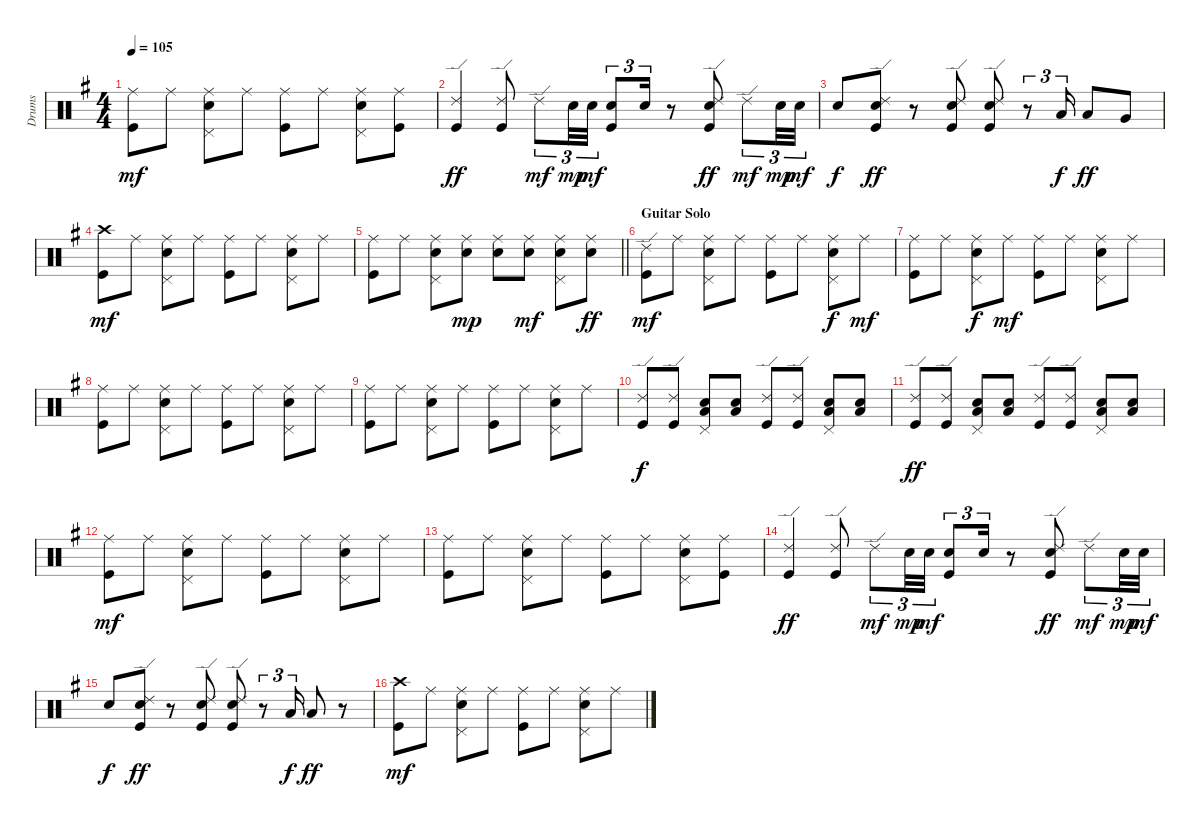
\track ("Drums" "Drums") {instrument percussion}
\staff {score}
\articulation defaults
\ts (4 4)
\tempo 105
\clef neutral
\ks eminor
("Ride (middle)" "Kick (hit)").8{dy mf} "Ride (middle)".8 ("Ride (middle)" "Pedal Hi-Hat (hit)" "Snare (hit) 2").8 "Ride (middle)".8 ("Ride (middle)" "Kick (hit)").8 "Ride (middle)".8 ("Ride (middle)" "Pedal Hi-Hat (hit)" "Snare (hit) 2").8 ("Ride (middle)" "Kick (hit)").8 |
("Ride (edge) 2" "Kick (hit)").4{dy ff} ("Ride (edge) 2" "Kick (hit)").8 "Ride (edge) 2".8{tu (3 2) dy mf} "Snare (hit) 2".32{tu (3 2) dy mp} "Snare (hit) 2".32{tu (3 2) dy mf} ("Snare (hit) 2" "Kick (hit)").8{tu (3 2)} "Snare (hit) 2".16{tu (3 2)} r.8 ("Ride (edge) 2" "Snare (hit) 2" "Kick (hit)").8{dy ff} "Ride (edge) 2".8{tu (3 2) dy mf} "Snare (hit) 2".32{tu (3 2) dy mp} "Snare (hit) 2".32{tu (3 2) dy mf} |
"Snare (hit) 2".8{dy f} ("Ride (edge) 2" "Snare (hit) 2" "Kick (hit)").8{dy ff} r.8 ("Ride (edge) 2" "Snare (hit) 2" "Kick (hit)").8 ("Ride (edge) 2" "Snare (hit) 2" "Kick (hit)").8 r.8{tu (3 2)} "Low Tom (hit)".16{tu (3 2) dy f} "Low Tom (hit)".8{dy ff} "Very Low Tom (hit)".8 |
("Crash high (hit)" "Kick (hit)").8{dy mf} "Ride (middle)".8 ("Ride (middle)" "Pedal Hi-Hat (hit)" "Snare (hit) 2").8 "Ride (middle)".8 ("Ride (middle)" "Kick (hit)").8 "Ride (middle)".8 ("Ride (middle)" "Pedal Hi-Hat (hit)" "Snare (hit) 2").8 "Ride (middle)".8 |
\barLineRight lightlight
("Ride (middle)" "Kick (hit)").8 "Ride (middle)".8 ("Ride (middle)" "Pedal Hi-Hat (hit)" "Snare (hit) 2").8 ("Ride (middle)" "Snare (hit) 2").8{dy mp} ("Ride (middle)" "Snare (hit) 2").8 ("Ride (middle)" "Snare (hit) 2").8{dy mf} ("Ride (middle)" "Pedal Hi-Hat (hit)" "Snare (hit) 2").8 ("Ride (middle)" "Snare (hit) 2").8{dy ff} |
\section ("" "Guitar Solo")
("Ride (edge) 2" "Kick (hit)").8{dy mf} "Ride (middle)".8 ("Ride (middle)" "Pedal Hi-Hat (hit)" "Snare (hit) 2").8 "Ride (middle)".8 ("Ride (middle)" "Kick (hit)").8 "Ride (middle)".8 ("Ride (middle)" "Pedal Hi-Hat (hit)" "Snare (hit) 2").8{dy f} "Ride (middle)".8{dy mf} |
("Ride (middle)" "Kick (hit)").8 "Ride (middle)".8 ("Ride (middle)" "Pedal Hi-Hat (hit)" "Snare (hit) 2").8{dy f} "Ride (middle)".8{dy mf} ("Ride (middle)" "Kick (hit)").8 "Ride (middle)".8 ("Ride (middle)" "Pedal Hi-Hat (hit)" "Snare (hit) 2").8 "Ride (middle)".8 |
("Ride (middle)" "Kick (hit)").8 "Ride (middle)".8 ("Ride (middle)" "Pedal Hi-Hat (hit)" "Snare (hit) 2").8 "Ride (middle)".8 ("Ride (middle)" "Kick (hit)").8 "Ride (middle)".8 ("Ride (middle)" "Pedal Hi-Hat (hit)" "Snare (hit) 2").8 "Ride (middle)".8 |
("Ride (middle)" "Kick (hit)").8 "Ride (middle)".8 ("Ride (middle)" "Pedal Hi-Hat (hit)" "Snare (hit) 2").8 "Ride (middle)".8 ("Ride (middle)" "Kick (hit)").8 "Ride (middle)".8 ("Ride (middle)" "Pedal Hi-Hat (hit)" "Snare (hit) 2").8 "Ride (middle)".8 |
("Ride (edge) 2" "Kick (hit)").8{dy f} ("Ride (edge) 2" "Kick (hit)").8 ("Pedal Hi-Hat (hit)" "Snare (hit) 2" "Low Tom (hit)").8 ("Snare (hit) 2" "Low Tom (hit)").8 ("Ride (edge) 2" "Kick (hit)").8 ("Ride (edge) 2" "Kick (hit)").8 ("Pedal Hi-Hat (hit)" "Snare (hit) 2" "Low Tom (hit)").8 ("Snare (hit) 2" "Low Tom (hit)").8 |
("Ride (edge) 2" "Kick (hit)").8{dy ff} ("Ride (edge) 2" "Kick (hit)").8 ("Pedal Hi-Hat (hit)" "Snare (hit) 2" "Low Tom (hit)").8 ("Snare (hit) 2" "Low Tom (hit)").8 ("Ride (edge) 2" "Kick (hit)").8 ("Ride (edge) 2" "Kick (hit)").8 ("Pedal Hi-Hat (hit)" "Snare (hit) 2" "Low Tom (hit)").8 ("Snare (hit) 2" "Low Tom (hit)").8 |
("Ride (middle)" "Kick (hit)").8{dy mf} "Ride (middle)".8 ("Ride (middle)" "Pedal Hi-Hat (hit)" "Snare (hit) 2").8 "Ride (middle)".8 ("Ride (middle)" "Kick (hit)").8 "Ride (middle)".8 ("Ride (middle)" "Pedal Hi-Hat (hit)" "Snare (hit) 2").8 "Ride (middle)".8 |
("Ride (middle)" "Kick (hit)").8 "Ride (middle)".8 ("Ride (middle)" "Pedal Hi-Hat (hit)" "Snare (hit) 2").8 "Ride (middle)".8 ("Ride (middle)" "Kick (hit)").8 "Ride (middle)".8 ("Ride (middle)" "Pedal Hi-Hat (hit)" "Snare (hit) 2").8 ("Ride (middle)" "Kick (hit)").8 |
("Ride (edge) 2" "Kick (hit)").4{dy ff} ("Ride (edge) 2" "Kick (hit)").8 "Ride (edge) 2".8{tu (3 2) dy mf} "Snare (hit) 2".32{tu (3 2) dy mp} "Snare (hit) 2".32{tu (3 2) dy mf} ("Snare (hit) 2" "Kick (hit)").8{tu (3 2)} "Snare (hit) 2".16{tu (3 2)} r.8 ("Ride (edge) 2" "Snare (hit) 2" "Kick (hit)").8{dy ff} "Ride (edge) 2".8{tu (3 2) dy mf} "Snare (hit) 2".32{tu (3 2) dy mp} "Snare (hit) 2".32{tu (3 2) dy mf} |
"Snare (hit) 2".8{dy f} ("Ride (edge) 2" "Snare (hit) 2" "Kick (hit)").8{dy ff} r.8 ("Ride (edge) 2" "Snare (hit) 2" "Kick (hit)").8 ("Ride (edge) 2" "Snare (hit) 2" "Kick (hit)").8 r.8{tu (3 2)} "Low Tom (hit)".16{tu (3 2) dy f} "Low Tom (hit)".8{dy ff} r.8 |
("Crash high (hit)" "Kick (hit)").8{dy mf} "Ride (middle)".8 ("Ride (middle)" "Pedal Hi-Hat (hit)" "Snare (hit) 2").8 "Ride (middle)".8 ("Ride (middle)" "Kick (hit)").8 "Ride (middle)".8 ("Ride (middle)" "Pedal Hi-Hat (hit)" "Snare (hit) 2").8 "Ride (middle)".8
